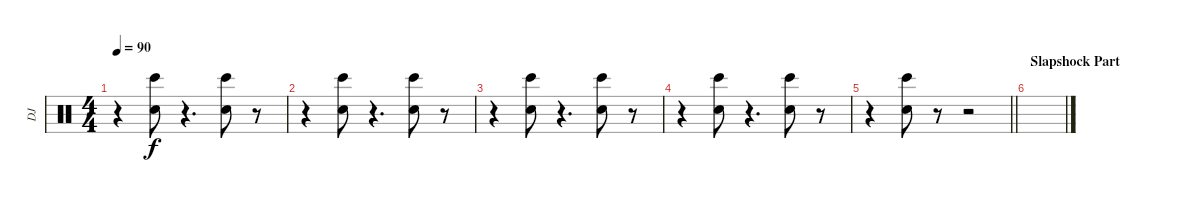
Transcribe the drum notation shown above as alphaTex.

\track ("DJ" "DJ") {instrument percussion}
\staff {score}
\articulation defaults
\ts (4 4)
\tempo 90
\clef neutral
\ks c
r.4{dy f} ("Bongo High (hit)" "Hand Clap (hit)").8 r.4{d} ("Bongo High (hit)" "Hand Clap (hit)").8 r.8 |
r.4 ("Bongo High (hit)" "Hand Clap (hit)").8 r.4{d} ("Bongo High (hit)" "Hand Clap (hit)").8 r.8 |
r.4 ("Bongo High (hit)" "Hand Clap (hit)").8 r.4{d} ("Bongo High (hit)" "Hand Clap (hit)").8 r.8 |
r.4 ("Bongo High (hit)" "Hand Clap (hit)").8 r.4{d} ("Bongo High (hit)" "Hand Clap (hit)").8 r.8 |
\barLineRight lightlight
r.4 ("Bongo High (hit)" "Hand Clap (hit)").8 r.8 r.2 |
\section ("" "Slapshock Part")
